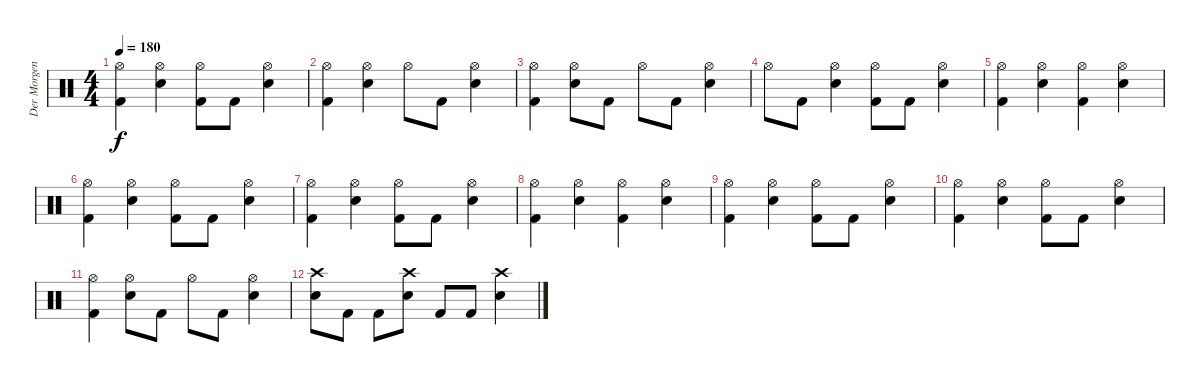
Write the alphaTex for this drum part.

\track ("Der Morgenstern" "Der Morgen") {instrument percussion}
\staff {score}
\articulation defaults
\ts (4 4)
\tempo 180
\clef neutral
\ks c
("Hi-Hat (open)" "Kick (hit) 2").4{dy f} ("Hi-Hat (open)" "Electric Snare (hit)").4 ("Hi-Hat (open)" "Kick (hit) 2").8 "Kick (hit) 2".8 ("Hi-Hat (open)" "Electric Snare (hit)").4 |
("Hi-Hat (open)" "Kick (hit) 2").4 ("Hi-Hat (open)" "Electric Snare (hit)").4 "Hi-Hat (open)".8 "Kick (hit) 2".8 ("Hi-Hat (open)" "Electric Snare (hit)").4 |
("Hi-Hat (open)" "Kick (hit) 2").4 ("Hi-Hat (open)" "Electric Snare (hit)").8 "Kick (hit) 2".8 "Hi-Hat (open)".8 "Kick (hit) 2".8 ("Hi-Hat (open)" "Electric Snare (hit)").4 |
"Hi-Hat (open)".8 "Kick (hit) 2".8 ("Hi-Hat (open)" "Electric Snare (hit)").4 ("Hi-Hat (open)" "Kick (hit) 2").8 "Kick (hit) 2".8 ("Hi-Hat (open)" "Electric Snare (hit)").4 |
("Hi-Hat (open)" "Kick (hit) 2").4 ("Hi-Hat (open)" "Electric Snare (hit)").4 ("Hi-Hat (open)" "Kick (hit) 2").4 ("Hi-Hat (open)" "Electric Snare (hit)").4 |
("Hi-Hat (open)" "Kick (hit) 2").4 ("Hi-Hat (open)" "Electric Snare (hit)").4 ("Hi-Hat (open)" "Kick (hit) 2").8 "Kick (hit) 2".8 ("Hi-Hat (open)" "Electric Snare (hit)").4 |
("Hi-Hat (open)" "Kick (hit) 2").4 ("Hi-Hat (open)" "Electric Snare (hit)").4 ("Hi-Hat (open)" "Kick (hit) 2").8 "Kick (hit) 2".8 ("Hi-Hat (open)" "Electric Snare (hit)").4 |
("Hi-Hat (open)" "Kick (hit) 2").4 ("Hi-Hat (open)" "Electric Snare (hit)").4 ("Hi-Hat (open)" "Kick (hit) 2").4 ("Hi-Hat (open)" "Electric Snare (hit)").4 |
("Hi-Hat (open)" "Kick (hit) 2").4 ("Hi-Hat (open)" "Electric Snare (hit)").4 ("Hi-Hat (open)" "Kick (hit) 2").8 "Kick (hit) 2".8 ("Hi-Hat (open)" "Electric Snare (hit)").4 |
("Hi-Hat (open)" "Kick (hit) 2").4 ("Hi-Hat (open)" "Electric Snare (hit)").4 ("Hi-Hat (open)" "Kick (hit) 2").8 "Kick (hit) 2".8 ("Hi-Hat (open)" "Electric Snare (hit)").4 |
("Hi-Hat (open)" "Kick (hit) 2").4 ("Hi-Hat (open)" "Electric Snare (hit)").8 "Kick (hit) 2".8 "Hi-Hat (open)".8 "Kick (hit) 2".8 ("Hi-Hat (open)" "Electric Snare (hit)").4 |
("Crash high (hit)" "Electric Snare (hit)").8 "Kick (hit) 2".8 "Kick (hit) 2".8 ("Crash high (hit)" "Electric Snare (hit)").8 "Kick (hit) 2".8 "Kick (hit) 2".8 ("Crash high (hit)" "Electric Snare (hit)").4
